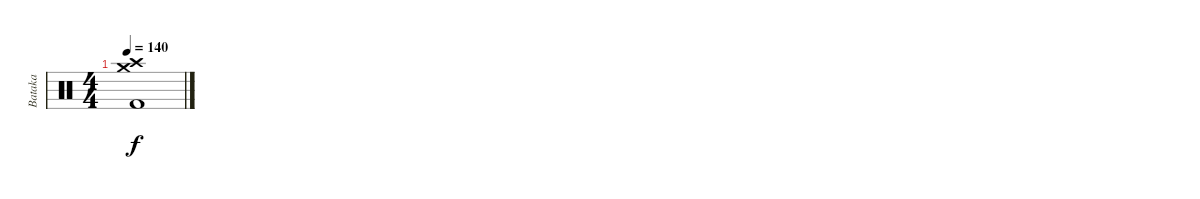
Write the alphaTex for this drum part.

\track ("Bataka" "Bataka") {instrument percussion}
\staff {score}
\articulation defaults
\ts (4 4)
\tempo 140
\clef neutral
\ks c
("Crash high (hit)" "Crash medium (hit)" "Kick (hit) 2").1{dy f}
